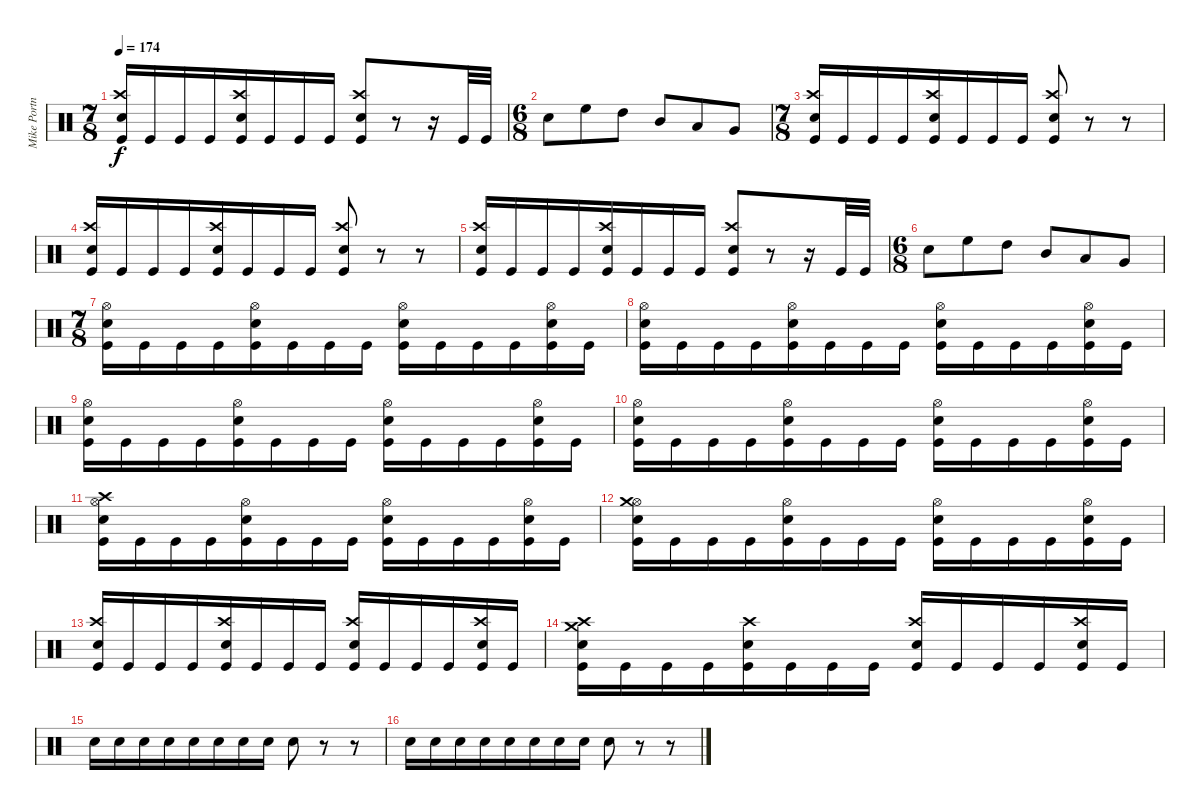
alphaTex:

\track ("Mike Portnoy" "Mike Portn") {instrument percussion}
\staff {score}
\articulation defaults
\ts (7 8)
\tempo 174
\clef neutral
\ks c
("Snare (hit) 2" "Crash high (hit)" "Kick (hit)").16{dy f} "Kick (hit)".16 "Kick (hit)".16 "Kick (hit)".16 ("Snare (hit) 2" "Crash high (hit)" "Kick (hit)").16 "Kick (hit)".16 "Kick (hit)".16 "Kick (hit)".16 ("Snare (hit) 2" "Crash high (hit)" "Kick (hit)").8 r.8 r.16 "Kick (hit)".32 "Kick (hit)".32 |
\ts (6 8)
"Snare (hit) 2".8 "High Floor Tom (hit)".8 "High Tom (hit)".8 "Mid Tom (hit)".8 "Low Tom (hit)".8 "Very Low Tom (hit)".8 |
\ts (7 8)
("Snare (hit) 2" "Crash high (hit)" "Kick (hit)").16 "Kick (hit)".16 "Kick (hit)".16 "Kick (hit)".16 ("Snare (hit) 2" "Crash high (hit)" "Kick (hit)").16 "Kick (hit)".16 "Kick (hit)".16 "Kick (hit)".16 ("Snare (hit) 2" "Crash high (hit)" "Kick (hit)").8 r.8 r.8 |
("Snare (hit) 2" "Crash high (hit)" "Kick (hit)").16 "Kick (hit)".16 "Kick (hit)".16 "Kick (hit)".16 ("Snare (hit) 2" "Crash high (hit)" "Kick (hit)").16 "Kick (hit)".16 "Kick (hit)".16 "Kick (hit)".16 ("Snare (hit) 2" "Crash high (hit)" "Kick (hit)").8 r.8 r.8 |
("Snare (hit) 2" "Crash high (hit)" "Kick (hit)").16 "Kick (hit)".16 "Kick (hit)".16 "Kick (hit)".16 ("Snare (hit) 2" "Crash high (hit)" "Kick (hit)").16 "Kick (hit)".16 "Kick (hit)".16 "Kick (hit)".16 ("Snare (hit) 2" "Crash high (hit)" "Kick (hit)").8 r.8 r.16 "Kick (hit)".32 "Kick (hit)".32 |
\ts (6 8)
"Snare (hit) 2".8 "High Floor Tom (hit)".8 "High Tom (hit)".8 "Mid Tom (hit)".8 "Low Tom (hit)".8 "Very Low Tom (hit)".8 |
\ts (7 8)
("Snare (hit) 2" "Hi-Hat (open)" "Kick (hit)").16 "Kick (hit)".16 "Kick (hit)".16 "Kick (hit)".16 ("Snare (hit) 2" "Hi-Hat (open)" "Kick (hit)").16 "Kick (hit)".16 "Kick (hit)".16 "Kick (hit)".16 ("Snare (hit) 2" "Hi-Hat (open)" "Kick (hit)").16 "Kick (hit)".16 "Kick (hit)".16 "Kick (hit)".16 ("Snare (hit) 2" "Hi-Hat (open)" "Kick (hit)").16 "Kick (hit)".16 |
("Snare (hit) 2" "Hi-Hat (open)" "Kick (hit)").16 "Kick (hit)".16 "Kick (hit)".16 "Kick (hit)".16 ("Snare (hit) 2" "Hi-Hat (open)" "Kick (hit)").16 "Kick (hit)".16 "Kick (hit)".16 "Kick (hit)".16 ("Snare (hit) 2" "Hi-Hat (open)" "Kick (hit)").16 "Kick (hit)".16 "Kick (hit)".16 "Kick (hit)".16 ("Snare (hit) 2" "Hi-Hat (open)" "Kick (hit)").16 "Kick (hit)".16 |
("Snare (hit) 2" "Hi-Hat (open)" "Kick (hit)").16 "Kick (hit)".16 "Kick (hit)".16 "Kick (hit)".16 ("Snare (hit) 2" "Hi-Hat (open)" "Kick (hit)").16 "Kick (hit)".16 "Kick (hit)".16 "Kick (hit)".16 ("Snare (hit) 2" "Hi-Hat (open)" "Kick (hit)").16 "Kick (hit)".16 "Kick (hit)".16 "Kick (hit)".16 ("Snare (hit) 2" "Hi-Hat (open)" "Kick (hit)").16 "Kick (hit)".16 |
("Snare (hit) 2" "Hi-Hat (open)" "Kick (hit)").16 "Kick (hit)".16 "Kick (hit)".16 "Kick (hit)".16 ("Snare (hit) 2" "Hi-Hat (open)" "Kick (hit)").16 "Kick (hit)".16 "Kick (hit)".16 "Kick (hit)".16 ("Snare (hit) 2" "Hi-Hat (open)" "Kick (hit)").16 "Kick (hit)".16 "Kick (hit)".16 "Kick (hit)".16 ("Snare (hit) 2" "Hi-Hat (open)" "Kick (hit)").16 "Kick (hit)".16 |
("Snare (hit) 2" "Crash high (hit)" "Hi-Hat (open)" "Kick (hit)").16 "Kick (hit)".16 "Kick (hit)".16 "Kick (hit)".16 ("Snare (hit) 2" "Hi-Hat (open)" "Kick (hit)").16 "Kick (hit)".16 "Kick (hit)".16 "Kick (hit)".16 ("Snare (hit) 2" "Hi-Hat (open)" "Kick (hit)").16 "Kick (hit)".16 "Kick (hit)".16 "Kick (hit)".16 ("Snare (hit) 2" "Hi-Hat (open)" "Kick (hit)").16 "Kick (hit)".16 |
("Snare (hit) 2" "Hi-Hat (open)" "Crash medium (hit)" "Kick (hit)").16 "Kick (hit)".16 "Kick (hit)".16 "Kick (hit)".16 ("Snare (hit) 2" "Hi-Hat (open)" "Kick (hit)").16 "Kick (hit)".16 "Kick (hit)".16 "Kick (hit)".16 ("Snare (hit) 2" "Hi-Hat (open)" "Kick (hit)").16 "Kick (hit)".16 "Kick (hit)".16 "Kick (hit)".16 ("Snare (hit) 2" "Hi-Hat (open)" "Kick (hit)").16 "Kick (hit)".16 |
("Snare (hit) 2" "Crash high (hit)" "Kick (hit)").16 "Kick (hit)".16 "Kick (hit)".16 "Kick (hit)".16 ("Snare (hit) 2" "Crash high (hit)" "Kick (hit)").16 "Kick (hit)".16 "Kick (hit)".16 "Kick (hit)".16 ("Snare (hit) 2" "Crash high (hit)" "Kick (hit)").16 "Kick (hit)".16 "Kick (hit)".16 "Kick (hit)".16 ("Snare (hit) 2" "Crash high (hit)" "Kick (hit)").16 "Kick (hit)".16 |
("Snare (hit) 2" "Crash medium (hit)" "Crash high (hit)" "Kick (hit)").16 "Kick (hit)".16 "Kick (hit)".16 "Kick (hit)".16 ("Snare (hit) 2" "Crash high (hit)" "Kick (hit)").16 "Kick (hit)".16 "Kick (hit)".16 "Kick (hit)".16 ("Snare (hit) 2" "Crash high (hit)" "Kick (hit)").16 "Kick (hit)".16 "Kick (hit)".16 "Kick (hit)".16 ("Snare (hit) 2" "Crash high (hit)" "Kick (hit)").16 "Kick (hit)".16 |
"Snare (hit) 2".16 "Snare (hit) 2".16 "Snare (hit) 2".16 "Snare (hit) 2".16 "Snare (hit) 2".16 "Snare (hit) 2".16 "Snare (hit) 2".16 "Snare (hit) 2".16 "Snare (hit) 2".8 r.8 r.8 |
"Snare (hit) 2".16 "Snare (hit) 2".16 "Snare (hit) 2".16 "Snare (hit) 2".16 "Snare (hit) 2".16 "Snare (hit) 2".16 "Snare (hit) 2".16 "Snare (hit) 2".16 "Snare (hit) 2".8 r.8 r.8
